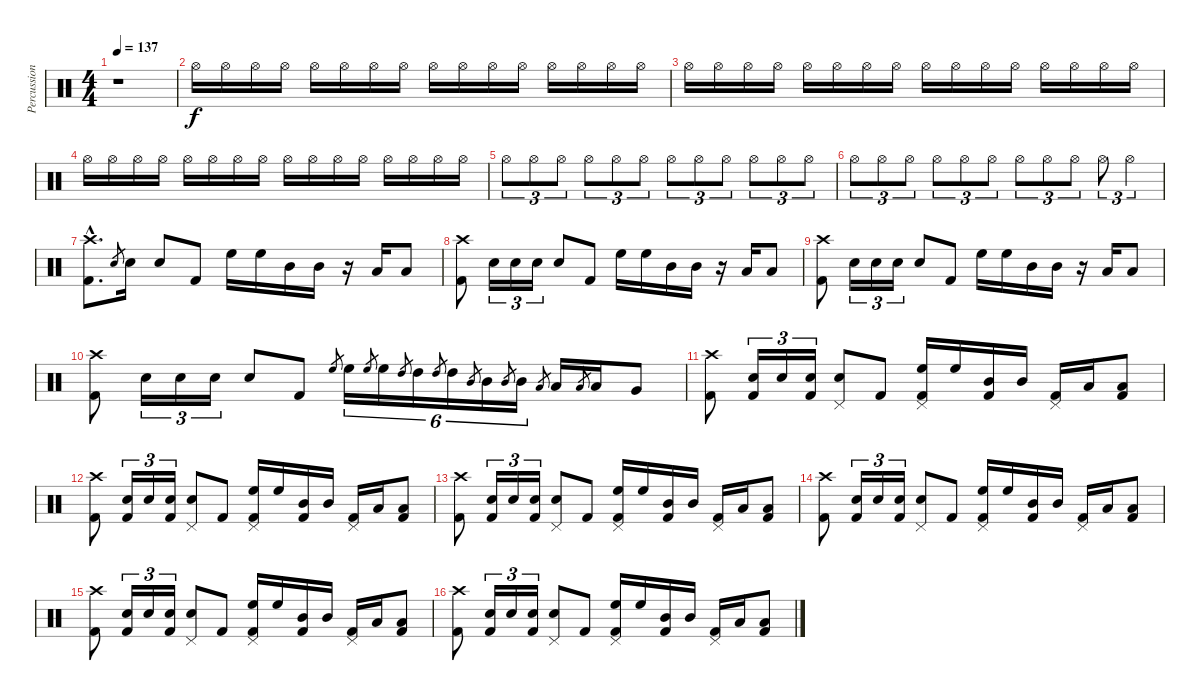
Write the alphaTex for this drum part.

\track ("Percussion" "Percussion") {instrument percussion}
\staff {score}
\articulation defaults
\ts (4 4)
\tempo 137
\clef neutral
\ks c
r.1{dy f} |
"Hi-Hat (open)".16 "Hi-Hat (open)".16 "Hi-Hat (open)".16 "Hi-Hat (open)".16 "Hi-Hat (open)".16 "Hi-Hat (open)".16 "Hi-Hat (open)".16 "Hi-Hat (open)".16 "Hi-Hat (open)".16 "Hi-Hat (open)".16 "Hi-Hat (open)".16 "Hi-Hat (open)".16 "Hi-Hat (open)".16 "Hi-Hat (open)".16 "Hi-Hat (open)".16 "Hi-Hat (open)".16 |
"Hi-Hat (open)".16 "Hi-Hat (open)".16 "Hi-Hat (open)".16 "Hi-Hat (open)".16 "Hi-Hat (open)".16 "Hi-Hat (open)".16 "Hi-Hat (open)".16 "Hi-Hat (open)".16 "Hi-Hat (open)".16 "Hi-Hat (open)".16 "Hi-Hat (open)".16 "Hi-Hat (open)".16 "Hi-Hat (open)".16 "Hi-Hat (open)".16 "Hi-Hat (open)".16 "Hi-Hat (open)".16 |
"Hi-Hat (open)".16 "Hi-Hat (open)".16 "Hi-Hat (open)".16 "Hi-Hat (open)".16 "Hi-Hat (open)".16 "Hi-Hat (open)".16 "Hi-Hat (open)".16 "Hi-Hat (open)".16 "Hi-Hat (open)".16 "Hi-Hat (open)".16 "Hi-Hat (open)".16 "Hi-Hat (open)".16 "Hi-Hat (open)".16 "Hi-Hat (open)".16 "Hi-Hat (open)".16 "Hi-Hat (open)".16 |
"Hi-Hat (open)".8{tu (3 2)} "Hi-Hat (open)".8{tu (3 2)} "Hi-Hat (open)".8{tu (3 2)} "Hi-Hat (open)".8{tu (3 2)} "Hi-Hat (open)".8{tu (3 2)} "Hi-Hat (open)".8{tu (3 2)} "Hi-Hat (open)".8{tu (3 2)} "Hi-Hat (open)".8{tu (3 2)} "Hi-Hat (open)".8{tu (3 2)} "Hi-Hat (open)".8{tu (3 2)} "Hi-Hat (open)".8{tu (3 2)} "Hi-Hat (open)".8{tu (3 2)} |
"Hi-Hat (open)".8{tu (3 2)} "Hi-Hat (open)".8{tu (3 2)} "Hi-Hat (open)".8{tu (3 2)} "Hi-Hat (open)".8{tu (3 2)} "Hi-Hat (open)".8{tu (3 2)} "Hi-Hat (open)".8{tu (3 2)} "Hi-Hat (open)".8{tu (3 2)} "Hi-Hat (open)".8{tu (3 2)} "Hi-Hat (open)".8{tu (3 2)} "Hi-Hat (open)".8{tu (3 2)} "Hi-Hat (open)".4{tu (3 2)} |
("Kick (hit) 2"{hac} "Crash high (hit)"{hac}).8{d} "Snare (hit) 2".8{gr} "Snare (hit) 2".16 "Snare (hit) 2".8 "Kick (hit) 2".8 "High Floor Tom (hit)".16 "High Floor Tom (hit)".16 "Mid Tom (hit)".16 "Mid Tom (hit)".16 r.16 "Low Tom (hit)".16 "Low Tom (hit)".8 |
("Kick (hit) 2" "Crash high (hit)").8 "Snare (hit) 2".16{tu (3 2)} "Snare (hit) 2".16{tu (3 2)} "Snare (hit) 2".16{tu (3 2)} "Snare (hit) 2".8 "Kick (hit) 2".8 "High Floor Tom (hit)".16 "High Floor Tom (hit)".16 "Mid Tom (hit)".16 "Mid Tom (hit)".16 r.16 "Low Tom (hit)".16 "Low Tom (hit)".8 |
("Kick (hit) 2" "Crash high (hit)").8 "Snare (hit) 2".16{tu (3 2)} "Snare (hit) 2".16{tu (3 2)} "Snare (hit) 2".16{tu (3 2)} "Snare (hit) 2".8 "Kick (hit) 2".8 "High Floor Tom (hit)".16 "High Floor Tom (hit)".16 "Mid Tom (hit)".16 "Mid Tom (hit)".16 r.16 "Low Tom (hit)".16 "Low Tom (hit)".8 |
("Kick (hit) 2" "Crash high (hit)").8 "Snare (hit) 2".16{tu (3 2)} "Snare (hit) 2".16{tu (3 2)} "Snare (hit) 2".16{tu (3 2)} "Snare (hit) 2".8 "Kick (hit) 2".8 "High Floor Tom (hit)".8{gr} "High Floor Tom (hit)".16{tu (6 4)} "High Floor Tom (hit)".8{gr} "High Floor Tom (hit)".16{tu (6 4)} "High Tom (hit)".8{gr} "High Tom (hit)".16{tu (6 4)} "High Tom (hit)".8{gr} "High Tom (hit)".16{tu (6 4)} "Mid Tom (hit)".8{gr} "Mid Tom (hit)".16{tu (6 4)} "Mid Tom (hit)".8{gr} "Mid Tom (hit)".16{tu (6 4)} "Low Tom (hit)".8{gr} "Low Tom (hit)".16 "Low Tom (hit)".8{gr} "Low Tom (hit)".16 "Very Low Tom (hit)".8 |
("Kick (hit) 2" "Crash high (hit)").8 ("Kick (hit) 2" "Snare (hit) 2").16{tu (3 2)} "Snare (hit) 2".16{tu (3 2)} ("Kick (hit) 2" "Snare (hit) 2").16{tu (3 2)} ("Snare (hit) 2" "Pedal Hi-Hat (hit)").8 "Kick (hit) 2".8 ("Kick (hit) 2" "High Floor Tom (hit)" "Pedal Hi-Hat (hit)").16 "High Floor Tom (hit)".16 ("Kick (hit) 2" "Mid Tom (hit)").16 "Mid Tom (hit)".16 ("Kick (hit) 2" "Pedal Hi-Hat (hit)").16 "Low Tom (hit)".16 ("Kick (hit) 2" "Low Tom (hit)").8 |
("Kick (hit) 2" "Crash high (hit)").8 ("Kick (hit) 2" "Snare (hit) 2").16{tu (3 2)} "Snare (hit) 2".16{tu (3 2)} ("Kick (hit) 2" "Snare (hit) 2").16{tu (3 2)} ("Snare (hit) 2" "Pedal Hi-Hat (hit)").8 "Kick (hit) 2".8 ("Kick (hit) 2" "High Floor Tom (hit)" "Pedal Hi-Hat (hit)").16 "High Floor Tom (hit)".16 ("Kick (hit) 2" "Mid Tom (hit)").16 "Mid Tom (hit)".16 ("Kick (hit) 2" "Pedal Hi-Hat (hit)").16 "Low Tom (hit)".16 ("Kick (hit) 2" "Low Tom (hit)").8 |
("Kick (hit) 2" "Crash high (hit)").8 ("Kick (hit) 2" "Snare (hit) 2").16{tu (3 2)} "Snare (hit) 2".16{tu (3 2)} ("Kick (hit) 2" "Snare (hit) 2").16{tu (3 2)} ("Snare (hit) 2" "Pedal Hi-Hat (hit)").8 "Kick (hit) 2".8 ("Kick (hit) 2" "High Floor Tom (hit)" "Pedal Hi-Hat (hit)").16 "High Floor Tom (hit)".16 ("Kick (hit) 2" "Mid Tom (hit)").16 "Mid Tom (hit)".16 ("Kick (hit) 2" "Pedal Hi-Hat (hit)").16 "Low Tom (hit)".16 ("Kick (hit) 2" "Low Tom (hit)").8 |
("Kick (hit) 2" "Crash high (hit)").8 ("Kick (hit) 2" "Snare (hit) 2").16{tu (3 2)} "Snare (hit) 2".16{tu (3 2)} ("Kick (hit) 2" "Snare (hit) 2").16{tu (3 2)} ("Snare (hit) 2" "Pedal Hi-Hat (hit)").8 "Kick (hit) 2".8 ("Kick (hit) 2" "High Floor Tom (hit)" "Pedal Hi-Hat (hit)").16 "High Floor Tom (hit)".16 ("Kick (hit) 2" "Mid Tom (hit)").16 "Mid Tom (hit)".16 ("Kick (hit) 2" "Pedal Hi-Hat (hit)").16 "Low Tom (hit)".16 ("Kick (hit) 2" "Low Tom (hit)").8 |
("Kick (hit) 2" "Crash high (hit)").8 ("Kick (hit) 2" "Snare (hit) 2").16{tu (3 2)} "Snare (hit) 2".16{tu (3 2)} ("Kick (hit) 2" "Snare (hit) 2").16{tu (3 2)} ("Snare (hit) 2" "Pedal Hi-Hat (hit)").8 "Kick (hit) 2".8 ("Kick (hit) 2" "High Floor Tom (hit)" "Pedal Hi-Hat (hit)").16 "High Floor Tom (hit)".16 ("Kick (hit) 2" "Mid Tom (hit)").16 "Mid Tom (hit)".16 ("Kick (hit) 2" "Pedal Hi-Hat (hit)").16 "Low Tom (hit)".16 ("Kick (hit) 2" "Low Tom (hit)").8 |
("Kick (hit) 2" "Crash high (hit)").8 ("Kick (hit) 2" "Snare (hit) 2").16{tu (3 2)} "Snare (hit) 2".16{tu (3 2)} ("Kick (hit) 2" "Snare (hit) 2").16{tu (3 2)} ("Snare (hit) 2" "Pedal Hi-Hat (hit)").8 "Kick (hit) 2".8 ("Kick (hit) 2" "High Floor Tom (hit)" "Pedal Hi-Hat (hit)").16 "High Floor Tom (hit)".16 ("Kick (hit) 2" "Mid Tom (hit)").16 "Mid Tom (hit)".16 ("Kick (hit) 2" "Pedal Hi-Hat (hit)").16 "Low Tom (hit)".16 ("Kick (hit) 2" "Low Tom (hit)").8
